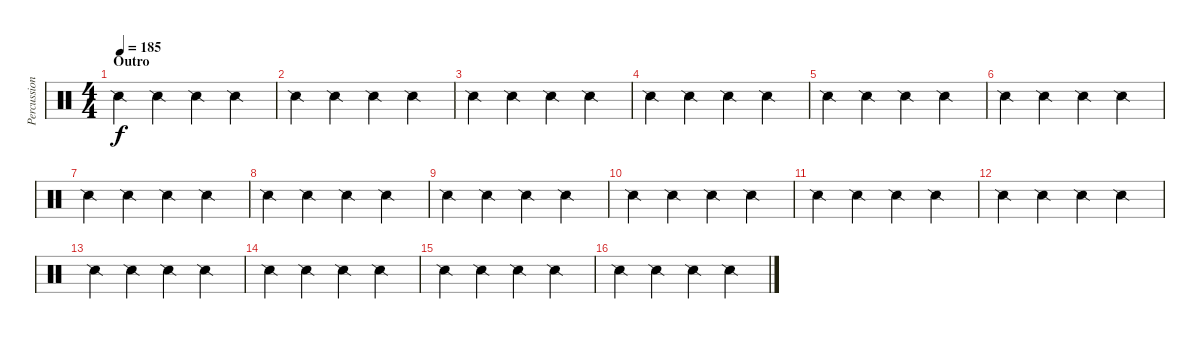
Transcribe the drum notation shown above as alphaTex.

\track ("Percussion" "Percussion") {instrument percussion}
\staff {score}
\articulation defaults
\ts (4 4)
\section ("" "Outro")
\tempo 185
\clef neutral
\ks c "Snare (side stick) 2".4{dy f} "Snare (side stick) 2".4 "Snare (side stick) 2".4 "Snare (side stick) 2".4
|
"Snare (side stick) 2".4 "Snare (side stick) 2".4 "Snare (side stick) 2".4 "Snare (side stick) 2".4 |
"Snare (side stick) 2".4 "Snare (side stick) 2".4 "Snare (side stick) 2".4 "Snare (side stick) 2".4 |
"Snare (side stick) 2".4 "Snare (side stick) 2".4 "Snare (side stick) 2".4 "Snare (side stick) 2".4 |
"Snare (side stick) 2".4 "Snare (side stick) 2".4 "Snare (side stick) 2".4 "Snare (side stick) 2".4 |
"Snare (side stick) 2".4 "Snare (side stick) 2".4 "Snare (side stick) 2".4 "Snare (side stick) 2".4 |
"Snare (side stick) 2".4 "Snare (side stick) 2".4 "Snare (side stick) 2".4 "Snare (side stick) 2".4 |
"Snare (side stick) 2".4 "Snare (side stick) 2".4 "Snare (side stick) 2".4 "Snare (side stick) 2".4 |
"Snare (side stick) 2".4 "Snare (side stick) 2".4 "Snare (side stick) 2".4 "Snare (side stick) 2".4 |
"Snare (side stick) 2".4 "Snare (side stick) 2".4 "Snare (side stick) 2".4 "Snare (side stick) 2".4 |
"Snare (side stick) 2".4 "Snare (side stick) 2".4 "Snare (side stick) 2".4 "Snare (side stick) 2".4 |
"Snare (side stick) 2".4 "Snare (side stick) 2".4 "Snare (side stick) 2".4 "Snare (side stick) 2".4 |
"Snare (side stick) 2".4 "Snare (side stick) 2".4 "Snare (side stick) 2".4 "Snare (side stick) 2".4 |
"Snare (side stick) 2".4 "Snare (side stick) 2".4 "Snare (side stick) 2".4 "Snare (side stick) 2".4 |
"Snare (side stick) 2".4 "Snare (side stick) 2".4 "Snare (side stick) 2".4 "Snare (side stick) 2".4 |
"Snare (side stick) 2".4 "Snare (side stick) 2".4 "Snare (side stick) 2".4 "Snare (side stick) 2".4
